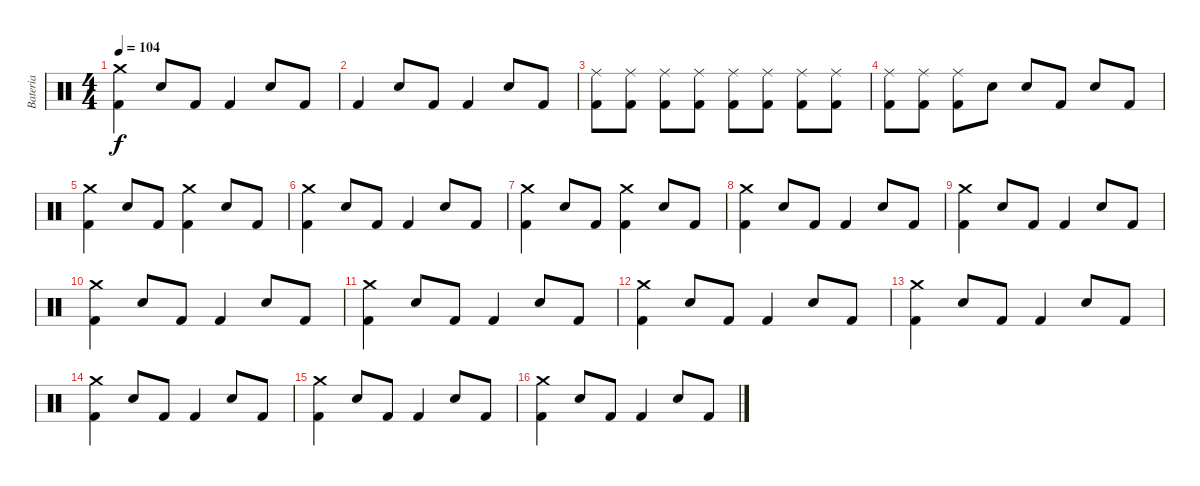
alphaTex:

\track ("Bateria" "Bateria") {instrument percussion}
\staff {score}
\articulation defaults
\ts (4 4)
\tempo 104
\clef neutral
\ks c
("Crash medium (hit)" "Kick (hit) 2").4{dy f} "Snare (hit) 2".8 "Kick (hit) 2".8 "Kick (hit) 2".4 "Snare (hit) 2".8 "Kick (hit) 2".8 |
"Kick (hit) 2".4 "Snare (hit) 2".8 "Kick (hit) 2".8 "Kick (hit) 2".4 "Snare (hit) 2".8 "Kick (hit) 2".8 |
("Ride (middle)" "Kick (hit) 2").8 ("Ride (middle)" "Kick (hit) 2").8 ("Ride (middle)" "Kick (hit) 2").8 ("Ride (middle)" "Kick (hit) 2").8 ("Ride (middle)" "Kick (hit) 2").8 ("Ride (middle)" "Kick (hit) 2").8 ("Ride (middle)" "Kick (hit) 2").8 ("Ride (middle)" "Kick (hit) 2").8 |
("Ride (middle)" "Kick (hit) 2").8 ("Ride (middle)" "Kick (hit) 2").8 ("Ride (middle)" "Kick (hit) 2").8 "Snare (hit) 2".8 "Snare (hit) 2".8 "Kick (hit) 2".8 "Snare (hit) 2".8 "Kick (hit) 2".8 |
("Crash medium (hit)" "Kick (hit) 2").4 "Snare (hit) 2".8 "Kick (hit) 2".8 ("Crash medium (hit)" "Kick (hit) 2").4 "Snare (hit) 2".8 "Kick (hit) 2".8 |
("Crash medium (hit)" "Kick (hit) 2").4 "Snare (hit) 2".8 "Kick (hit) 2".8 "Kick (hit) 2".4 "Snare (hit) 2".8 "Kick (hit) 2".8 |
("Crash medium (hit)" "Kick (hit) 2").4 "Snare (hit) 2".8 "Kick (hit) 2".8 ("Crash medium (hit)" "Kick (hit) 2").4 "Snare (hit) 2".8 "Kick (hit) 2".8 |
("Crash medium (hit)" "Kick (hit) 2").4 "Snare (hit) 2".8 "Kick (hit) 2".8 "Kick (hit) 2".4 "Snare (hit) 2".8 "Kick (hit) 2".8 |
("Crash medium (hit)" "Kick (hit) 2").4 "Snare (hit) 2".8 "Kick (hit) 2".8 "Kick (hit) 2".4 "Snare (hit) 2".8 "Kick (hit) 2".8 |
("Crash medium (hit)" "Kick (hit) 2").4 "Snare (hit) 2".8 "Kick (hit) 2".8 "Kick (hit) 2".4 "Snare (hit) 2".8 "Kick (hit) 2".8 |
("Crash medium (hit)" "Kick (hit) 2").4 "Snare (hit) 2".8 "Kick (hit) 2".8 "Kick (hit) 2".4 "Snare (hit) 2".8 "Kick (hit) 2".8 |
("Crash medium (hit)" "Kick (hit) 2").4 "Snare (hit) 2".8 "Kick (hit) 2".8 "Kick (hit) 2".4 "Snare (hit) 2".8 "Kick (hit) 2".8 |
("Crash medium (hit)" "Kick (hit) 2").4 "Snare (hit) 2".8 "Kick (hit) 2".8 "Kick (hit) 2".4 "Snare (hit) 2".8 "Kick (hit) 2".8 |
("Crash medium (hit)" "Kick (hit) 2").4 "Snare (hit) 2".8 "Kick (hit) 2".8 "Kick (hit) 2".4 "Snare (hit) 2".8 "Kick (hit) 2".8 |
("Crash medium (hit)" "Kick (hit) 2").4 "Snare (hit) 2".8 "Kick (hit) 2".8 "Kick (hit) 2".4 "Snare (hit) 2".8 "Kick (hit) 2".8 |
("Crash medium (hit)" "Kick (hit) 2").4 "Snare (hit) 2".8 "Kick (hit) 2".8 "Kick (hit) 2".4 "Snare (hit) 2".8 "Kick (hit) 2".8
